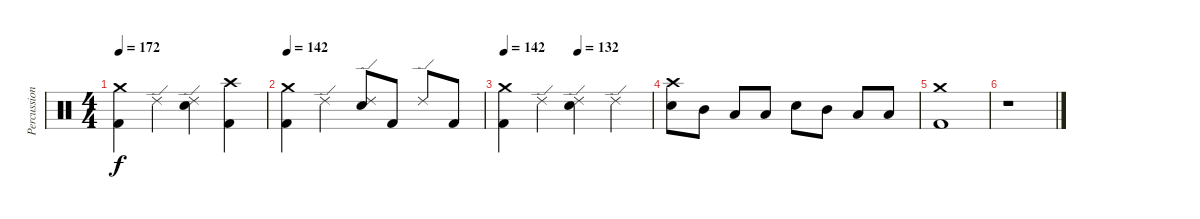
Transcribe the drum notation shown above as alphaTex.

\track ("Percussion" "Percussion") {instrument percussion}
\staff {score}
\articulation defaults
\ts (4 4)
\tempo 172
\clef neutral
\ks c
("Crash medium (hit)" "Kick (hit) 2").4{dy f} "Ride (edge) 2".4 ("Ride (edge) 2" "Electric Snare (hit)").4 ("Crash high (hit)" "Kick (hit) 2").4 |
\tempo 142
("Crash medium (hit)" "Kick (hit) 2").4 "Ride (edge) 2".4 ("Ride (edge) 2" "Electric Snare (hit)").8 "Kick (hit) 2".8 "Ride (edge) 2".8 "Kick (hit) 2".8 |
\tempo 142
\tempo (132 0.5)
("Crash medium (hit)" "Kick (hit) 2").4 "Ride (edge) 2".4 ("Ride (edge) 2" "Electric Snare (hit)").4 "Ride (edge) 2".4 |
("Crash high (hit)" "Electric Snare (hit)").8 "Mid Tom (hit)".8 "Low Tom (hit)".8 "Low Floor Tom (hit)".8 "Electric Snare (hit)".8 "Mid Tom (hit)".8 "Low Tom (hit)".8 "Low Floor Tom (hit)".8 |
("Crash medium (hit)" "Kick (hit) 2").1 |
r.1
